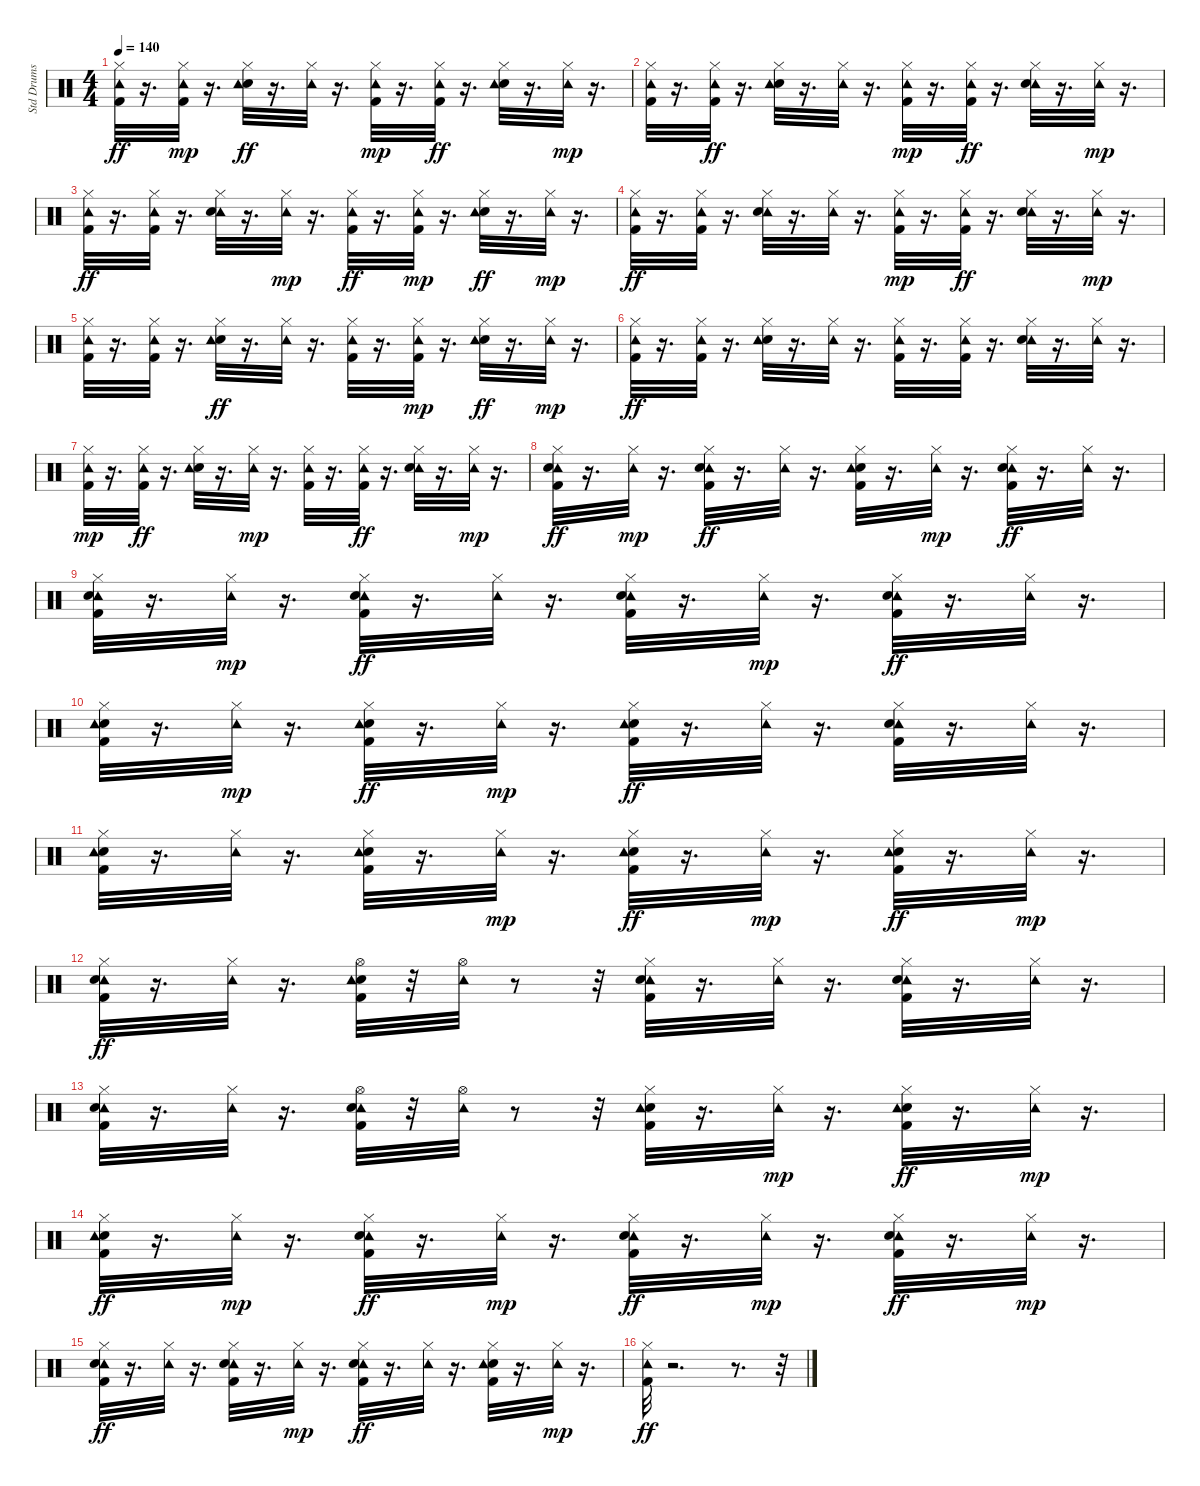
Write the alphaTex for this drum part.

\track ("Std Drums" "Std Drums") {instrument percussion}
\staff {score}
\articulation defaults
\ts (4 4)
\tempo 140
\clef neutral
\ks c
("Tambourine (hit)" "Kick (hit) 2" "Hi-Hat (closed)").32{dy ff} r.16{d} ("Kick (hit) 2" "Hi-Hat (closed)" "Tambourine (hit)").32{dy mp} r.16{d} ("Hi-Hat (closed)" "Snare (hit) 2" "Tambourine (hit)").32{dy ff} r.16{d} ("Tambourine (hit)" "Hi-Hat (closed)").32 r.16{d} ("Kick (hit) 2" "Hi-Hat (closed)" "Tambourine (hit)").32{dy mp} r.16{d} ("Tambourine (hit)" "Hi-Hat (closed)" "Kick (hit) 2").32{dy ff} r.16{d} ("Snare (hit) 2" "Tambourine (hit)" "Hi-Hat (closed)").32 r.16{d} ("Hi-Hat (closed)" "Tambourine (hit)").32{dy mp} r.16{d} |
("Kick (hit) 2" "Hi-Hat (closed)" "Tambourine (hit)").32 r.16{d} ("Tambourine (hit)" "Hi-Hat (closed)" "Kick (hit) 2").32{dy ff} r.16{d} ("Snare (hit) 2" "Tambourine (hit)" "Hi-Hat (closed)").32 r.16{d} ("Tambourine (hit)" "Hi-Hat (closed)").32 r.16{d} ("Hi-Hat (closed)" "Kick (hit) 2" "Tambourine (hit)").32{dy mp} r.16{d} ("Kick (hit) 2" "Tambourine (hit)" "Hi-Hat (closed)").32{dy ff} r.16{d} ("Hi-Hat (closed)" "Tambourine (hit)" "Snare (hit) 2").32 r.16{d} ("Hi-Hat (closed)" "Tambourine (hit)").32{dy mp} r.16{d} |
("Kick (hit) 2" "Tambourine (hit)" "Hi-Hat (closed)").32{dy ff} r.16{d} ("Tambourine (hit)" "Hi-Hat (closed)" "Kick (hit) 2").32 r.16{d} ("Hi-Hat (closed)" "Tambourine (hit)" "Snare (hit) 2").32 r.16{d} ("Hi-Hat (closed)" "Tambourine (hit)").32{dy mp} r.16{d} ("Kick (hit) 2" "Tambourine (hit)" "Hi-Hat (closed)").32{dy ff} r.16{d} ("Kick (hit) 2" "Hi-Hat (closed)" "Tambourine (hit)").32{dy mp} r.16{d} ("Snare (hit) 2" "Hi-Hat (closed)" "Tambourine (hit)").32{dy ff} r.16{d} ("Hi-Hat (closed)" "Tambourine (hit)").32{dy mp} r.16{d} |
("Kick (hit) 2" "Tambourine (hit)" "Hi-Hat (closed)").32{dy ff} r.16{d} ("Hi-Hat (closed)" "Tambourine (hit)" "Kick (hit) 2").32 r.16{d} ("Tambourine (hit)" "Snare (hit) 2" "Hi-Hat (closed)").32 r.16{d} ("Tambourine (hit)" "Hi-Hat (closed)").32 r.16{d} ("Hi-Hat (closed)" "Kick (hit) 2" "Tambourine (hit)").32{dy mp} r.16{d} ("Hi-Hat (closed)" "Tambourine (hit)" "Kick (hit) 2").32{dy ff} r.16{d} ("Tambourine (hit)" "Snare (hit) 2" "Hi-Hat (closed)").32 r.16{d} ("Hi-Hat (closed)" "Tambourine (hit)").32{dy mp} r.16{d} |
("Kick (hit) 2" "Hi-Hat (closed)" "Tambourine (hit)").32 r.16{d} ("Kick (hit) 2" "Hi-Hat (closed)" "Tambourine (hit)").32 r.16{d} ("Snare (hit) 2" "Tambourine (hit)" "Hi-Hat (closed)").32{dy ff} r.16{d} ("Tambourine (hit)" "Hi-Hat (closed)").32 r.16{d} ("Hi-Hat (closed)" "Tambourine (hit)" "Kick (hit) 2").32 r.16{d} ("Hi-Hat (closed)" "Kick (hit) 2" "Tambourine (hit)").32{dy mp} r.16{d} ("Snare (hit) 2" "Tambourine (hit)" "Hi-Hat (closed)").32{dy ff} r.16{d} ("Hi-Hat (closed)" "Tambourine (hit)").32{dy mp} r.16{d} |
("Tambourine (hit)" "Kick (hit) 2" "Hi-Hat (closed)").32{dy ff} r.16{d} ("Tambourine (hit)" "Kick (hit) 2" "Hi-Hat (closed)").32 r.16{d} ("Hi-Hat (closed)" "Snare (hit) 2" "Tambourine (hit)").32 r.16{d} ("Tambourine (hit)" "Hi-Hat (closed)").32 r.16{d} ("Hi-Hat (closed)" "Tambourine (hit)" "Kick (hit) 2").32 r.16{d} ("Hi-Hat (closed)" "Tambourine (hit)" "Kick (hit) 2").32 r.16{d} ("Hi-Hat (closed)" "Tambourine (hit)" "Snare (hit) 2").32 r.16{d} ("Tambourine (hit)" "Hi-Hat (closed)").32 r.16{d} |
("Kick (hit) 2" "Hi-Hat (closed)" "Tambourine (hit)").32{dy mp} r.16{d} ("Tambourine (hit)" "Hi-Hat (closed)" "Kick (hit) 2").32{dy ff} r.16{d} ("Snare (hit) 2" "Hi-Hat (closed)" "Tambourine (hit)").32 r.16{d} ("Hi-Hat (closed)" "Tambourine (hit)").32{dy mp} r.16{d} ("Hi-Hat (closed)" "Kick (hit) 2" "Tambourine (hit)").32 r.16{d} ("Tambourine (hit)" "Kick (hit) 2" "Hi-Hat (closed)").32{dy ff} r.16{d} ("Tambourine (hit)" "Snare (hit) 2" "Hi-Hat (closed)").32 r.16{d} ("Hi-Hat (closed)" "Tambourine (hit)").32{dy mp} r.16{d} |
("Tambourine (hit)" "Kick (hit) 2" "Hi-Hat (closed)" "Snare (hit) 2").32{dy ff} r.16{d} ("Hi-Hat (closed)" "Tambourine (hit)").32{dy mp} r.16{d} ("Hi-Hat (closed)" "Tambourine (hit)" "Kick (hit) 2" "Snare (hit) 2").32{dy ff} r.16{d} ("Tambourine (hit)" "Hi-Hat (closed)").32 r.16{d} ("Snare (hit) 2" "Tambourine (hit)" "Hi-Hat (closed)" "Kick (hit) 2").32 r.16{d} ("Hi-Hat (closed)" "Tambourine (hit)").32{dy mp} r.16{d} ("Hi-Hat (closed)" "Kick (hit) 2" "Tambourine (hit)" "Snare (hit) 2").32{dy ff} r.16{d} ("Tambourine (hit)" "Hi-Hat (closed)").32 r.16{d} |
("Tambourine (hit)" "Hi-Hat (closed)" "Kick (hit) 2" "Snare (hit) 2").32 r.16{d} ("Hi-Hat (closed)" "Tambourine (hit)").32{dy mp} r.16{d} ("Kick (hit) 2" "Hi-Hat (closed)" "Tambourine (hit)" "Snare (hit) 2").32{dy ff} r.16{d} ("Tambourine (hit)" "Hi-Hat (closed)").32 r.16{d} ("Kick (hit) 2" "Tambourine (hit)" "Snare (hit) 2" "Hi-Hat (closed)").32 r.16{d} ("Hi-Hat (closed)" "Tambourine (hit)").32{dy mp} r.16{d} ("Hi-Hat (closed)" "Kick (hit) 2" "Tambourine (hit)" "Snare (hit) 2").32{dy ff} r.16{d} ("Tambourine (hit)" "Hi-Hat (closed)").32 r.16{d} |
("Kick (hit) 2" "Hi-Hat (closed)" "Snare (hit) 2" "Tambourine (hit)").32 r.16{d} ("Hi-Hat (closed)" "Tambourine (hit)").32{dy mp} r.16{d} ("Snare (hit) 2" "Hi-Hat (closed)" "Tambourine (hit)" "Kick (hit) 2").32{dy ff} r.16{d} ("Hi-Hat (closed)" "Tambourine (hit)").32{dy mp} r.16{d} ("Snare (hit) 2" "Tambourine (hit)" "Kick (hit) 2" "Hi-Hat (closed)").32{dy ff} r.16{d} ("Tambourine (hit)" "Hi-Hat (closed)").32 r.16{d} ("Tambourine (hit)" "Hi-Hat (closed)" "Kick (hit) 2" "Snare (hit) 2").32 r.16{d} ("Tambourine (hit)" "Hi-Hat (closed)").32 r.16{d} |
("Snare (hit) 2" "Hi-Hat (closed)" "Tambourine (hit)" "Kick (hit) 2").32 r.16{d} ("Tambourine (hit)" "Hi-Hat (closed)").32 r.16{d} ("Snare (hit) 2" "Kick (hit) 2" "Hi-Hat (closed)" "Tambourine (hit)").32 r.16{d} ("Hi-Hat (closed)" "Tambourine (hit)").32{dy mp} r.16{d} ("Kick (hit) 2" "Hi-Hat (closed)" "Snare (hit) 2" "Tambourine (hit)").32{dy ff} r.16{d} ("Hi-Hat (closed)" "Tambourine (hit)").32{dy mp} r.16{d} ("Snare (hit) 2" "Tambourine (hit)" "Kick (hit) 2" "Hi-Hat (closed)").32{dy ff} r.16{d} ("Hi-Hat (closed)" "Tambourine (hit)").32{dy mp} r.16{d} |
("Kick (hit) 2" "Tambourine (hit)" "Snare (hit) 2" "Hi-Hat (closed)").32{dy ff} r.16{d} ("Tambourine (hit)" "Hi-Hat (closed)").32 r.16{d} ("Snare (hit) 2" "Kick (hit) 2" "Hi-Hat (open)" "Tambourine (hit)").32 r.32 ("Tambourine (hit)" "Hi-Hat (open)").32 r.8 r.32 ("Kick (hit) 2" "Hi-Hat (closed)" "Tambourine (hit)" "Snare (hit) 2").32 r.16{d} ("Tambourine (hit)" "Hi-Hat (closed)").32 r.16{d} ("Hi-Hat (closed)" "Tambourine (hit)" "Kick (hit) 2" "Snare (hit) 2").32 r.16{d} ("Tambourine (hit)" "Hi-Hat (closed)").32 r.16{d} |
("Tambourine (hit)" "Kick (hit) 2" "Snare (hit) 2" "Hi-Hat (closed)").32 r.16{d} ("Tambourine (hit)" "Hi-Hat (closed)").32 r.16{d} ("Kick (hit) 2" "Hi-Hat (open)" "Tambourine (hit)" "Snare (hit) 2").32 r.32 ("Tambourine (hit)" "Hi-Hat (open)").32 r.8 r.32 ("Kick (hit) 2" "Hi-Hat (closed)" "Snare (hit) 2" "Tambourine (hit)").32 r.16{d} ("Hi-Hat (closed)" "Tambourine (hit)").32{dy mp} r.16{d} ("Kick (hit) 2" "Snare (hit) 2" "Tambourine (hit)" "Hi-Hat (closed)").32{dy ff} r.16{d} ("Hi-Hat (closed)" "Tambourine (hit)").32{dy mp} r.16{d} |
("Snare (hit) 2" "Tambourine (hit)" "Kick (hit) 2" "Hi-Hat (closed)").32{dy ff} r.16{d} ("Hi-Hat (closed)" "Tambourine (hit)").32{dy mp} r.16{d} ("Tambourine (hit)" "Snare (hit) 2" "Hi-Hat (closed)" "Kick (hit) 2").32{dy ff} r.16{d} ("Hi-Hat (closed)" "Tambourine (hit)").32{dy mp} r.16{d} ("Kick (hit) 2" "Hi-Hat (closed)" "Tambourine (hit)" "Snare (hit) 2").32{dy ff} r.16{d} ("Hi-Hat (closed)" "Tambourine (hit)").32{dy mp} r.16{d} ("Hi-Hat (closed)" "Tambourine (hit)" "Kick (hit) 2" "Snare (hit) 2").32{dy ff} r.16{d} ("Hi-Hat (closed)" "Tambourine (hit)").32{dy mp} r.16{d} |
("Tambourine (hit)" "Hi-Hat (closed)" "Kick (hit) 2" "Snare (hit) 2").32{dy ff} r.16{d} ("Tambourine (hit)" "Hi-Hat (closed)").32 r.16{d} ("Kick (hit) 2" "Tambourine (hit)" "Snare (hit) 2" "Hi-Hat (closed)").32 r.16{d} ("Hi-Hat (closed)" "Tambourine (hit)").32{dy mp} r.16{d} ("Kick (hit) 2" "Tambourine (hit)" "Snare (hit) 2" "Hi-Hat (closed)").32{dy ff} r.16{d} ("Tambourine (hit)" "Hi-Hat (closed)").32 r.16{d} ("Hi-Hat (closed)" "Snare (hit) 2" "Kick (hit) 2" "Tambourine (hit)").32 r.16{d} ("Hi-Hat (closed)" "Tambourine (hit)").32{dy mp} r.16{d} |
("Hi-Hat (closed)" "Kick (hit) 2" "Tambourine (hit)").32{dy ff} r.2{d} r.8{d} r.32
